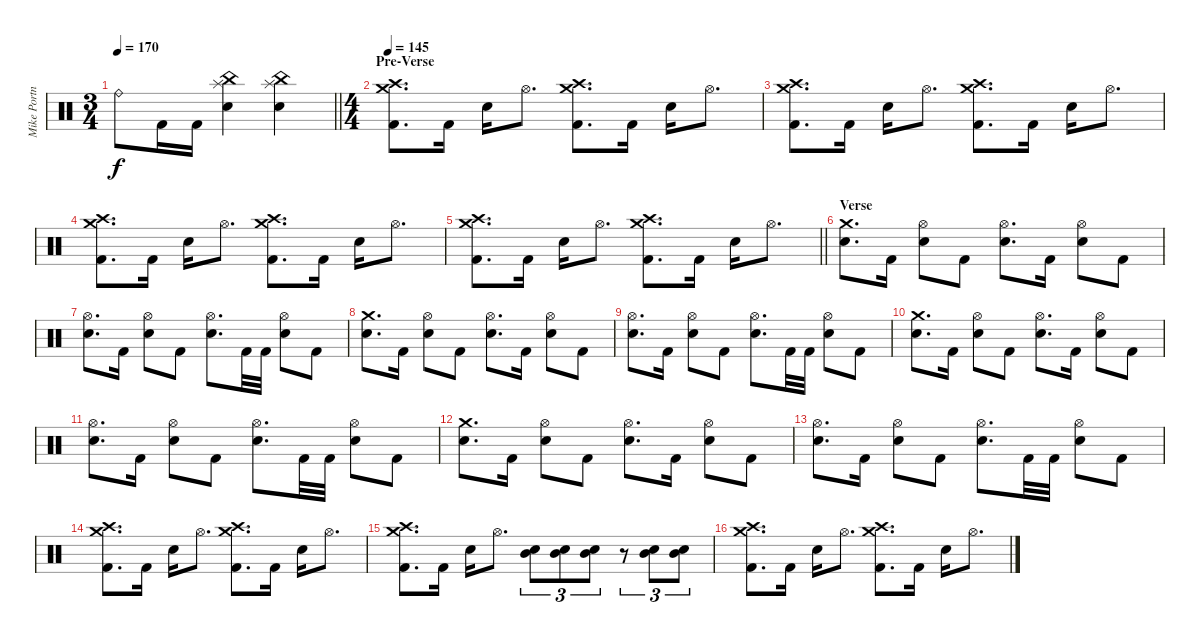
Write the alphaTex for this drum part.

\track ("Mike Portnoy" "Mike Portn") {instrument percussion}
\staff {score}
\articulation defaults
\ts (3 4)
\tempo 170
\clef neutral
\barLineRight lightlight
\ks c "Ride (bell)".8{dy f} "Kick (hit) 2".16 "Kick (hit) 2".16
("China (hit)" "Splash (hit)" "Electric Snare (hit)").4 ("China (hit)" "Splash (hit)" "Electric Snare (hit)").4 |
\ts (4 4)
\section ("" "Pre-Verse")
\tempo 145
("Crash high (hit)" "Crash medium (hit)" "Kick (hit) 2").8{d} "Kick (hit) 2".16 "Electric Snare (hit)".16 "Hi-Hat (open)".8{d} ("Crash high (hit)" "Crash medium (hit)" "Kick (hit) 2").8{d} "Kick (hit) 2".16 "Electric Snare (hit)".16 "Hi-Hat (open)".8{d} |
("Crash high (hit)" "Crash medium (hit)" "Kick (hit) 2").8{d} "Kick (hit) 2".16 "Electric Snare (hit)".16 "Hi-Hat (open)".8{d} ("Crash high (hit)" "Crash medium (hit)" "Kick (hit) 2").8{d} "Kick (hit) 2".16 "Electric Snare (hit)".16 "Hi-Hat (open)".8{d} |
("Crash high (hit)" "Crash medium (hit)" "Kick (hit) 2").8{d} "Kick (hit) 2".16 "Electric Snare (hit)".16 "Hi-Hat (open)".8{d} ("Crash high (hit)" "Crash medium (hit)" "Kick (hit) 2").8{d} "Kick (hit) 2".16 "Electric Snare (hit)".16 "Hi-Hat (open)".8{d} |
\barLineRight lightlight
("Crash high (hit)" "Crash medium (hit)" "Kick (hit) 2").8{d} "Kick (hit) 2".16 "Electric Snare (hit)".16 "Hi-Hat (open)".8{d} ("Crash high (hit)" "Crash medium (hit)" "Kick (hit) 2").8{d} "Kick (hit) 2".16 "Electric Snare (hit)".16 "Hi-Hat (open)".8{d} |
\section ("" "Verse")
("Crash medium (hit)" "Electric Snare (hit)").8{d} "Kick (hit) 2".16 ("Hi-Hat (open)" "Electric Snare (hit)").8 "Kick (hit) 2".8 ("Hi-Hat (open)" "Electric Snare (hit)").8{d} "Kick (hit) 2".16 ("Hi-Hat (open)" "Electric Snare (hit)").8 "Kick (hit) 2".8 |
("Hi-Hat (open)" "Electric Snare (hit)").8{d} "Kick (hit) 2".16 ("Hi-Hat (open)" "Electric Snare (hit)").8 "Kick (hit) 2".8 ("Hi-Hat (open)" "Electric Snare (hit)").8{d} "Kick (hit) 2".32 "Kick (hit) 2".32 ("Hi-Hat (open)" "Electric Snare (hit)").8 "Kick (hit) 2".8 |
("Crash medium (hit)" "Electric Snare (hit)").8{d} "Kick (hit) 2".16 ("Hi-Hat (open)" "Electric Snare (hit)").8 "Kick (hit) 2".8 ("Hi-Hat (open)" "Electric Snare (hit)").8{d} "Kick (hit) 2".16 ("Hi-Hat (open)" "Electric Snare (hit)").8 "Kick (hit) 2".8 |
("Hi-Hat (open)" "Electric Snare (hit)").8{d} "Kick (hit) 2".16 ("Hi-Hat (open)" "Electric Snare (hit)").8 "Kick (hit) 2".8 ("Hi-Hat (open)" "Electric Snare (hit)").8{d} "Kick (hit) 2".32 "Kick (hit) 2".32 ("Hi-Hat (open)" "Electric Snare (hit)").8 "Kick (hit) 2".8 |
("Crash medium (hit)" "Electric Snare (hit)").8{d} "Kick (hit) 2".16 ("Hi-Hat (open)" "Electric Snare (hit)").8 "Kick (hit) 2".8 ("Hi-Hat (open)" "Electric Snare (hit)").8{d} "Kick (hit) 2".16 ("Hi-Hat (open)" "Electric Snare (hit)").8 "Kick (hit) 2".8 |
("Hi-Hat (open)" "Electric Snare (hit)").8{d} "Kick (hit) 2".16 ("Hi-Hat (open)" "Electric Snare (hit)").8 "Kick (hit) 2".8 ("Hi-Hat (open)" "Electric Snare (hit)").8{d} "Kick (hit) 2".32 "Kick (hit) 2".32 ("Hi-Hat (open)" "Electric Snare (hit)").8 "Kick (hit) 2".8 |
("Crash medium (hit)" "Electric Snare (hit)").8{d} "Kick (hit) 2".16 ("Hi-Hat (open)" "Electric Snare (hit)").8 "Kick (hit) 2".8 ("Hi-Hat (open)" "Electric Snare (hit)").8{d} "Kick (hit) 2".16 ("Hi-Hat (open)" "Electric Snare (hit)").8 "Kick (hit) 2".8 |
("Hi-Hat (open)" "Electric Snare (hit)").8{d} "Kick (hit) 2".16 ("Hi-Hat (open)" "Electric Snare (hit)").8 "Kick (hit) 2".8 ("Hi-Hat (open)" "Electric Snare (hit)").8{d} "Kick (hit) 2".32 "Kick (hit) 2".32 ("Hi-Hat (open)" "Electric Snare (hit)").8 "Kick (hit) 2".8 |
("Crash high (hit)" "Crash medium (hit)" "Kick (hit) 2").8{d} "Kick (hit) 2".16 "Electric Snare (hit)".16 "Hi-Hat (open)".8{d} ("Crash high (hit)" "Crash medium (hit)" "Kick (hit) 2").8{d} "Kick (hit) 2".16 "Electric Snare (hit)".16 "Hi-Hat (open)".8{d} |
("Crash high (hit)" "Crash medium (hit)" "Kick (hit) 2").8{d} "Kick (hit) 2".16 "Electric Snare (hit)".16 "Hi-Hat (open)".8{d} ("Mid Tom (hit)" "Electric Snare (hit)").8{tu (3 2)} ("Mid Tom (hit)" "Electric Snare (hit)").8{tu (3 2)} ("Mid Tom (hit)" "Electric Snare (hit)").8{tu (3 2)} r.8{tu (3 2)} ("Mid Tom (hit)" "Electric Snare (hit)").8{tu (3 2)} ("Mid Tom (hit)" "Electric Snare (hit)").8{tu (3 2)} |
("Crash high (hit)" "Crash medium (hit)" "Kick (hit) 2").8{d} "Kick (hit) 2".16 "Electric Snare (hit)".16 "Hi-Hat (open)".8{d} ("Crash high (hit)" "Crash medium (hit)" "Kick (hit) 2").8{d} "Kick (hit) 2".16 "Electric Snare (hit)".16 "Hi-Hat (open)".8{d}
